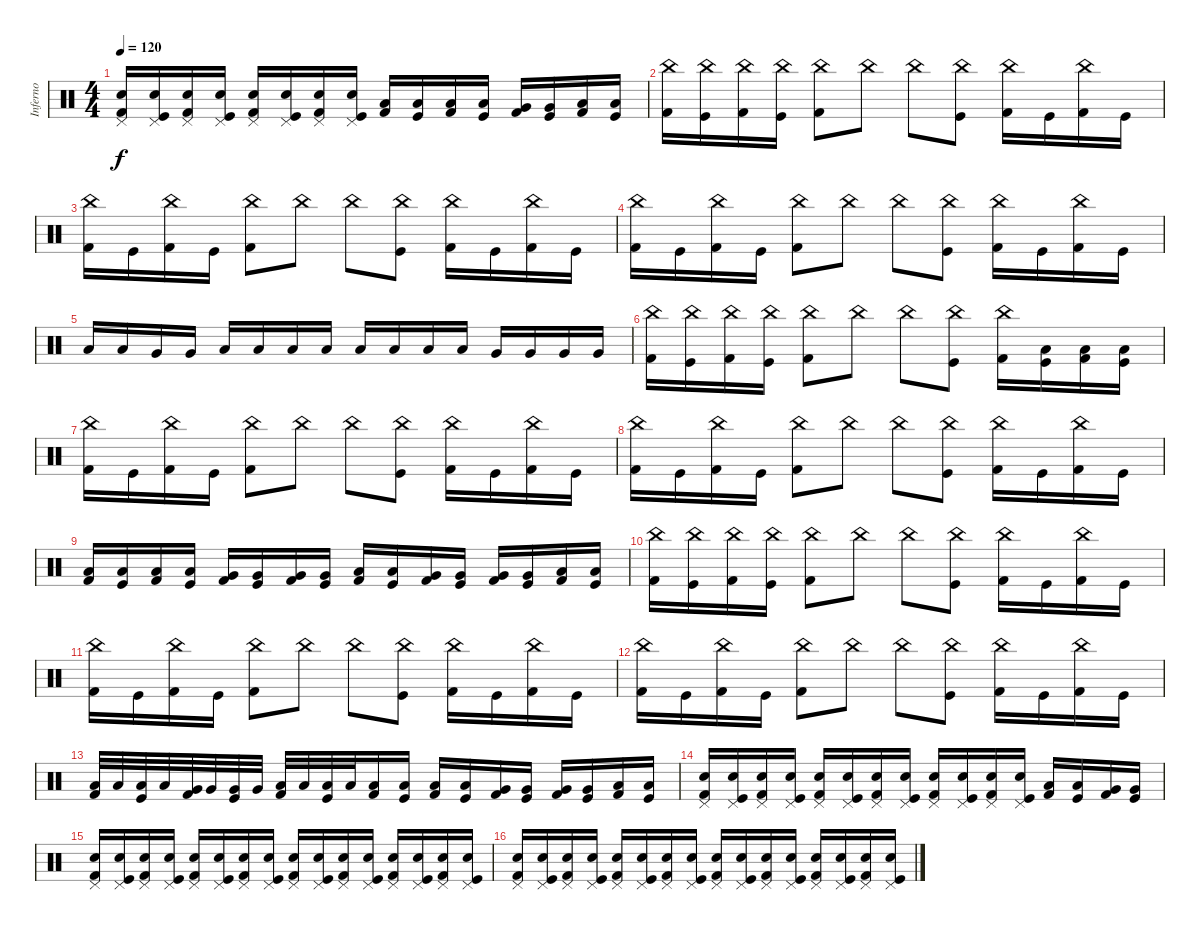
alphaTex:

\track ("Inferno" "Inferno") {instrument percussion}
\staff {score}
\articulation defaults
\ts (4 4)
\tempo 120
\clef neutral
\ks c
("Pedal Hi-Hat (hit)" "Electric Snare (hit)" "Kick (hit) 2").16{dy f} ("Pedal Hi-Hat (hit)" "Electric Snare (hit)" "Kick (hit)").16 ("Pedal Hi-Hat (hit)" "Electric Snare (hit)" "Kick (hit) 2").16 ("Pedal Hi-Hat (hit)" "Electric Snare (hit)" "Kick (hit)").16 ("Pedal Hi-Hat (hit)" "Electric Snare (hit)" "Kick (hit) 2").16 ("Pedal Hi-Hat (hit)" "Electric Snare (hit)" "Kick (hit)").16 ("Pedal Hi-Hat (hit)" "Electric Snare (hit)" "Kick (hit) 2").16 ("Pedal Hi-Hat (hit)" "Electric Snare (hit)" "Kick (hit)").16 ("Low Tom (hit)" "Kick (hit) 2").16 ("Low Tom (hit)" "Kick (hit)").16 ("Low Tom (hit)" "Kick (hit) 2").16 ("Low Tom (hit)" "Kick (hit)").16 ("Very Low Tom (hit)" "Kick (hit) 2").16 ("Very Low Tom (hit)" "Kick (hit)").16 ("Low Floor Tom (hit)" "Kick (hit) 2").16 ("Low Floor Tom (hit)" "Kick (hit)").16 |
("China (hit)" "Kick (hit) 2").16{volume 16} ("China (hit)" "Kick (hit)").16 ("China (hit)" "Kick (hit) 2").16 ("China (hit)" "Kick (hit)").16 ("China (hit)" "Kick (hit) 2").8 "China (hit)".8 "China (hit)".8 ("China (hit)" "Kick (hit)").8 ("China (hit)" "Kick (hit) 2").16 "Kick (hit)".16 ("China (hit)" "Kick (hit) 2").16 "Kick (hit)".16 |
("China (hit)" "Kick (hit) 2").16 "Kick (hit)".16 ("China (hit)" "Kick (hit) 2").16 "Kick (hit)".16 ("China (hit)" "Kick (hit) 2").8 "China (hit)".8 "China (hit)".8 ("China (hit)" "Kick (hit)").8 ("China (hit)" "Kick (hit) 2").16 "Kick (hit)".16 ("China (hit)" "Kick (hit) 2").16 "Kick (hit)".16 |
("China (hit)" "Kick (hit) 2").16 "Kick (hit)".16 ("China (hit)" "Kick (hit) 2").16 "Kick (hit)".16 ("China (hit)" "Kick (hit) 2").8 "China (hit)".8 "China (hit)".8 ("China (hit)" "Kick (hit)").8 ("China (hit)" "Kick (hit) 2").16 "Kick (hit)".16 ("China (hit)" "Kick (hit) 2").16 "Kick (hit)".16 |
"Low Tom (hit)".16 "Low Tom (hit)".16 "Very Low Tom (hit)".16 "Very Low Tom (hit)".16 "Low Floor Tom (hit)".16 "Low Floor Tom (hit)".16 "Low Floor Tom (hit)".16 "Low Floor Tom (hit)".16 "Low Tom (hit)".16 "Low Tom (hit)".16 "Low Tom (hit)".16 "Low Tom (hit)".16 "Very Low Tom (hit)".16 "Very Low Tom (hit)".16 "Very Low Tom (hit)".16 "Very Low Tom (hit)".16 |
("China (hit)" "Kick (hit) 2").16 ("China (hit)" "Kick (hit)").16 ("China (hit)" "Kick (hit) 2").16 ("China (hit)" "Kick (hit)").16 ("China (hit)" "Kick (hit) 2").8 "China (hit)".8 "China (hit)".8 ("China (hit)" "Kick (hit)").8 ("China (hit)" "Kick (hit) 2").16 ("Low Tom (hit)" "Kick (hit)").16 ("Low Tom (hit)" "Kick (hit) 2").16 ("Low Tom (hit)" "Kick (hit)").16 |
("China (hit)" "Kick (hit) 2").16 "Kick (hit)".16 ("China (hit)" "Kick (hit) 2").16 "Kick (hit)".16 ("China (hit)" "Kick (hit) 2").8 "China (hit)".8 "China (hit)".8 ("China (hit)" "Kick (hit)").8 ("China (hit)" "Kick (hit) 2").16 "Kick (hit)".16 ("China (hit)" "Kick (hit) 2").16 "Kick (hit)".16 |
("China (hit)" "Kick (hit) 2").16 "Kick (hit)".16 ("China (hit)" "Kick (hit) 2").16 "Kick (hit)".16 ("China (hit)" "Kick (hit) 2").8 "China (hit)".8 "China (hit)".8 ("China (hit)" "Kick (hit)").8 ("China (hit)" "Kick (hit) 2").16 "Kick (hit)".16 ("China (hit)" "Kick (hit) 2").16 "Kick (hit)".16 |
("Low Tom (hit)" "Kick (hit) 2").16 ("Low Tom (hit)" "Kick (hit)").16 ("Low Tom (hit)" "Kick (hit) 2").16 ("Low Tom (hit)" "Kick (hit)").16 ("Very Low Tom (hit)" "Kick (hit) 2").16 ("Very Low Tom (hit)" "Kick (hit)").16 ("Very Low Tom (hit)" "Kick (hit) 2").16 ("Very Low Tom (hit)" "Kick (hit)").16 ("Low Tom (hit)" "Kick (hit) 2").16 ("Low Tom (hit)" "Kick (hit)").16 ("Very Low Tom (hit)" "Kick (hit) 2").16 ("Very Low Tom (hit)" "Kick (hit)").16 ("Very Low Tom (hit)" "Kick (hit) 2").16 ("Very Low Tom (hit)" "Kick (hit)").16 ("Low Floor Tom (hit)" "Kick (hit) 2").16 ("Low Floor Tom (hit)" "Kick (hit)").16 |
("China (hit)" "Kick (hit) 2").16{volume 16} ("China (hit)" "Kick (hit)").16 ("China (hit)" "Kick (hit) 2").16 ("China (hit)" "Kick (hit)").16 ("China (hit)" "Kick (hit) 2").8 "China (hit)".8 "China (hit)".8 ("China (hit)" "Kick (hit)").8 ("China (hit)" "Kick (hit) 2").16 "Kick (hit)".16 ("China (hit)" "Kick (hit) 2").16 "Kick (hit)".16 |
("China (hit)" "Kick (hit) 2").16 "Kick (hit)".16 ("China (hit)" "Kick (hit) 2").16 "Kick (hit)".16 ("China (hit)" "Kick (hit) 2").8 "China (hit)".8 "China (hit)".8 ("China (hit)" "Kick (hit)").8 ("China (hit)" "Kick (hit) 2").16 "Kick (hit)".16 ("China (hit)" "Kick (hit) 2").16 "Kick (hit)".16 |
("China (hit)" "Kick (hit) 2").16 "Kick (hit)".16 ("China (hit)" "Kick (hit) 2").16 "Kick (hit)".16 ("China (hit)" "Kick (hit) 2").8 "China (hit)".8 "China (hit)".8 ("China (hit)" "Kick (hit)").8 ("China (hit)" "Kick (hit) 2").16 "Kick (hit)".16 ("China (hit)" "Kick (hit) 2").16 "Kick (hit)".16 |
("Low Tom (hit)" "Kick (hit) 2").32 "Low Tom (hit)".32 ("Low Tom (hit)" "Kick (hit)").32 "Low Tom (hit)".32 ("Very Low Tom (hit)" "Kick (hit) 2").32 "Very Low Tom (hit)".32 ("Very Low Tom (hit)" "Kick (hit)").32 "Very Low Tom (hit)".32 ("Low Floor Tom (hit)" "Kick (hit) 2").32 "Low Floor Tom (hit)".32 ("Low Floor Tom (hit)" "Kick (hit)").32 "Low Floor Tom (hit)".32 ("Low Tom (hit)" "Kick (hit) 2").16 ("Low Tom (hit)" "Kick (hit)").16 ("Low Tom (hit)" "Kick (hit) 2").16 ("Low Tom (hit)" "Kick (hit)").16 ("Very Low Tom (hit)" "Kick (hit) 2").16 ("Very Low Tom (hit)" "Kick (hit)").16 ("Very Low Tom (hit)" "Kick (hit) 2").16 ("Very Low Tom (hit)" "Kick (hit)").16 ("Low Floor Tom (hit)" "Kick (hit) 2").16 ("Low Floor Tom (hit)" "Kick (hit)").16 |
("Pedal Hi-Hat (hit)" "Electric Snare (hit)" "Kick (hit) 2").16{volume 11} ("Pedal Hi-Hat (hit)" "Electric Snare (hit)" "Kick (hit)").16 ("Pedal Hi-Hat (hit)" "Electric Snare (hit)" "Kick (hit) 2").16 ("Pedal Hi-Hat (hit)" "Electric Snare (hit)" "Kick (hit)").16 ("Pedal Hi-Hat (hit)" "Electric Snare (hit)" "Kick (hit) 2").16 ("Pedal Hi-Hat (hit)" "Electric Snare (hit)" "Kick (hit)").16 ("Pedal Hi-Hat (hit)" "Electric Snare (hit)" "Kick (hit) 2").16 ("Pedal Hi-Hat (hit)" "Electric Snare (hit)" "Kick (hit)").16 ("Pedal Hi-Hat (hit)" "Electric Snare (hit)" "Kick (hit) 2").16 ("Pedal Hi-Hat (hit)" "Electric Snare (hit)" "Kick (hit)").16 ("Pedal Hi-Hat (hit)" "Electric Snare (hit)" "Kick (hit) 2").16 ("Pedal Hi-Hat (hit)" "Electric Snare (hit)" "Kick (hit)").16 ("Low Tom (hit)" "Kick (hit) 2").16 ("Low Tom (hit)" "Kick (hit)").16 ("Very Low Tom (hit)" "Kick (hit) 2").16 ("Very Low Tom (hit)" "Kick (hit)").16 |
("Pedal Hi-Hat (hit)" "Electric Snare (hit)" "Kick (hit) 2").16 ("Pedal Hi-Hat (hit)" "Electric Snare (hit)" "Kick (hit)").16 ("Pedal Hi-Hat (hit)" "Electric Snare (hit)" "Kick (hit) 2").16 ("Pedal Hi-Hat (hit)" "Electric Snare (hit)" "Kick (hit)").16 ("Pedal Hi-Hat (hit)" "Electric Snare (hit)" "Kick (hit) 2").16 ("Pedal Hi-Hat (hit)" "Electric Snare (hit)" "Kick (hit)").16 ("Pedal Hi-Hat (hit)" "Electric Snare (hit)" "Kick (hit) 2").16 ("Pedal Hi-Hat (hit)" "Electric Snare (hit)" "Kick (hit)").16 ("Pedal Hi-Hat (hit)" "Electric Snare (hit)" "Kick (hit) 2").16 ("Pedal Hi-Hat (hit)" "Electric Snare (hit)" "Kick (hit)").16 ("Pedal Hi-Hat (hit)" "Electric Snare (hit)" "Kick (hit) 2").16 ("Pedal Hi-Hat (hit)" "Electric Snare (hit)" "Kick (hit)").16 ("Pedal Hi-Hat (hit)" "Electric Snare (hit)" "Kick (hit) 2").16 ("Pedal Hi-Hat (hit)" "Electric Snare (hit)" "Kick (hit)").16 ("Pedal Hi-Hat (hit)" "Electric Snare (hit)" "Kick (hit) 2").16 ("Pedal Hi-Hat (hit)" "Electric Snare (hit)" "Kick (hit)").16 |
("Pedal Hi-Hat (hit)" "Electric Snare (hit)" "Kick (hit) 2").16 ("Pedal Hi-Hat (hit)" "Electric Snare (hit)" "Kick (hit)").16 ("Pedal Hi-Hat (hit)" "Electric Snare (hit)" "Kick (hit) 2").16 ("Pedal Hi-Hat (hit)" "Electric Snare (hit)" "Kick (hit)").16 ("Pedal Hi-Hat (hit)" "Electric Snare (hit)" "Kick (hit) 2").16 ("Pedal Hi-Hat (hit)" "Electric Snare (hit)" "Kick (hit)").16 ("Pedal Hi-Hat (hit)" "Electric Snare (hit)" "Kick (hit) 2").16 ("Pedal Hi-Hat (hit)" "Electric Snare (hit)" "Kick (hit)").16 ("Pedal Hi-Hat (hit)" "Electric Snare (hit)" "Kick (hit) 2").16 ("Pedal Hi-Hat (hit)" "Electric Snare (hit)" "Kick (hit)").16 ("Pedal Hi-Hat (hit)" "Electric Snare (hit)" "Kick (hit) 2").16 ("Pedal Hi-Hat (hit)" "Electric Snare (hit)" "Kick (hit)").16 ("Pedal Hi-Hat (hit)" "Electric Snare (hit)" "Kick (hit) 2").16 ("Pedal Hi-Hat (hit)" "Electric Snare (hit)" "Kick (hit)").16 ("Pedal Hi-Hat (hit)" "Electric Snare (hit)" "Kick (hit) 2").16 ("Pedal Hi-Hat (hit)" "Electric Snare (hit)" "Kick (hit)").16
